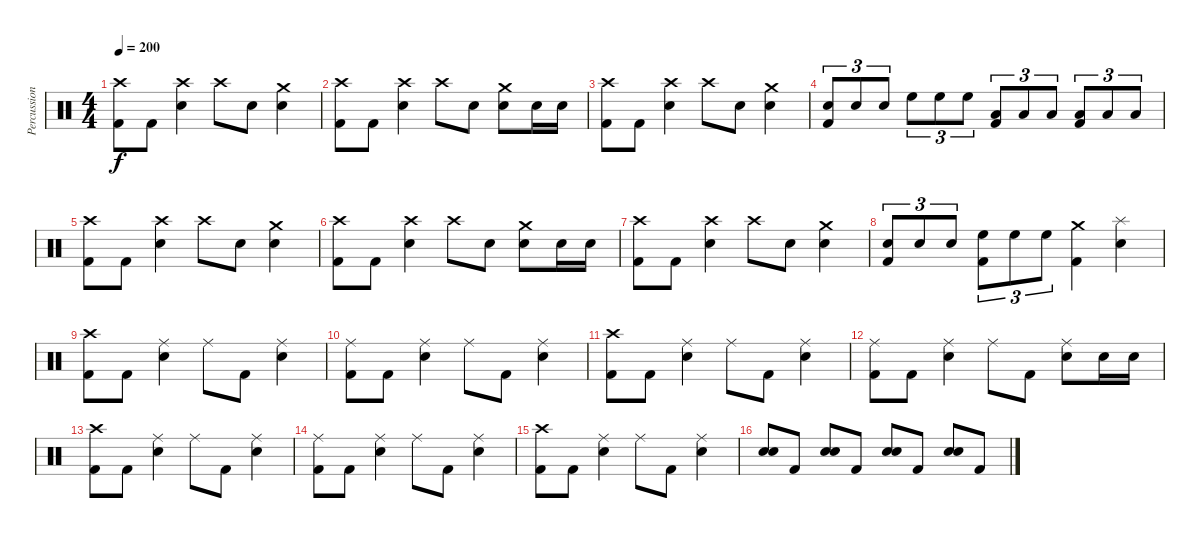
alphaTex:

\track ("Percussion" "Percussion") {instrument percussion}
\staff {score}
\articulation defaults
\ts (4 4)
\tempo 200
\clef neutral
\ks c
("Crash high (hit)" "Kick (hit) 2").8{dy f} "Kick (hit) 2".8 ("Crash high (hit)" "Snare (hit) 2").4 "Crash high (hit)".8 "Snare (hit) 2".8 ("Crash medium (hit)" "Snare (hit) 2").4 |
("Crash high (hit)" "Kick (hit) 2").8 "Kick (hit) 2".8 ("Crash high (hit)" "Snare (hit) 2").4 "Crash high (hit)".8 "Snare (hit) 2".8 ("Crash medium (hit)" "Snare (hit) 2").8 "Snare (hit) 2".16 "Snare (hit) 2".16 |
("Crash high (hit)" "Kick (hit) 2").8 "Kick (hit) 2".8 ("Crash high (hit)" "Snare (hit) 2").4 "Crash high (hit)".8 "Snare (hit) 2".8 ("Crash medium (hit)" "Snare (hit) 2").4 |
("Snare (hit) 2" "Kick (hit) 2").8{tu (3 2)} "Snare (hit) 2".8{tu (3 2)} "Snare (hit) 2".8{tu (3 2)} "High Floor Tom (hit)".8{tu (3 2)} "High Floor Tom (hit)".8{tu (3 2)} "High Floor Tom (hit)".8{tu (3 2)} ("Low Tom (hit)" "Kick (hit) 2").8{tu (3 2)} "Low Tom (hit)".8{tu (3 2)} "Low Tom (hit)".8{tu (3 2)} ("Low Floor Tom (hit)" "Kick (hit) 2").8{tu (3 2)} "Low Floor Tom (hit)".8{tu (3 2)} "Low Floor Tom (hit)".8{tu (3 2)} |
("Crash high (hit)" "Kick (hit) 2").8 "Kick (hit) 2".8 ("Crash high (hit)" "Snare (hit) 2").4 "Crash high (hit)".8 "Snare (hit) 2".8 ("Crash medium (hit)" "Snare (hit) 2").4 |
("Crash high (hit)" "Kick (hit) 2").8 "Kick (hit) 2".8 ("Crash high (hit)" "Snare (hit) 2").4 "Crash high (hit)".8 "Snare (hit) 2".8 ("Crash medium (hit)" "Snare (hit) 2").8 "Snare (hit) 2".16 "Snare (hit) 2".16 |
("Crash high (hit)" "Kick (hit) 2").8 "Kick (hit) 2".8 ("Crash high (hit)" "Snare (hit) 2").4 "Crash high (hit)".8 "Snare (hit) 2".8 ("Crash medium (hit)" "Snare (hit) 2").4 |
("Snare (hit) 2" "Kick (hit) 2").8{tu (3 2)} "Snare (hit) 2".8{tu (3 2)} "Snare (hit) 2".8{tu (3 2)} ("High Floor Tom (hit)" "Kick (hit) 2").8{tu (3 2)} "High Floor Tom (hit)".8{tu (3 2)} "High Floor Tom (hit)".8{tu (3 2)} ("Crash medium (hit)" "Kick (hit) 2").4 ("Splash (hit)" "Snare (hit) 2").4 |
("Crash high (hit)" "Kick (hit) 2").8 "Kick (hit) 2".8 ("Ride (middle)" "Snare (hit) 2").4 "Ride (middle)".8 "Kick (hit) 2".8 ("Ride (middle)" "Snare (hit) 2").4 |
("Ride (middle)" "Kick (hit) 2").8 "Kick (hit) 2".8 ("Ride (middle)" "Snare (hit) 2").4 "Ride (middle)".8 "Kick (hit) 2".8 ("Ride (middle)" "Snare (hit) 2").4 |
("Crash high (hit)" "Kick (hit) 2").8 "Kick (hit) 2".8 ("Ride (middle)" "Snare (hit) 2").4 "Ride (middle)".8 "Kick (hit) 2".8 ("Ride (middle)" "Snare (hit) 2").4 |
("Ride (middle)" "Kick (hit) 2").8 "Kick (hit) 2".8 ("Ride (middle)" "Snare (hit) 2").4 "Ride (middle)".8 "Kick (hit) 2".8 ("Ride (middle)" "Snare (hit) 2").8 "Snare (hit) 2".16 "Snare (hit) 2".16 |
("Crash high (hit)" "Kick (hit) 2").8 "Kick (hit) 2".8 ("Ride (middle)" "Snare (hit) 2").4 "Ride (middle)".8 "Kick (hit) 2".8 ("Ride (middle)" "Snare (hit) 2").4 |
("Ride (middle)" "Kick (hit) 2").8 "Kick (hit) 2".8 ("Ride (middle)" "Snare (hit) 2").4 "Ride (middle)".8 "Kick (hit) 2".8 ("Ride (middle)" "Snare (hit) 2").4 |
("Crash high (hit)" "Kick (hit) 2").8 "Kick (hit) 2".8 ("Ride (middle)" "Snare (hit) 2").4 "Ride (middle)".8 "Kick (hit) 2".8 ("Ride (middle)" "Snare (hit) 2").4 |
("Snare (hit) 2" "Snare (hit) 2").8 "Kick (hit) 2".8 ("Snare (hit) 2" "Snare (hit) 2").8 "Kick (hit) 2".8 ("Snare (hit) 2" "Snare (hit) 2").8 "Kick (hit) 2".8 ("Snare (hit) 2" "Snare (hit) 2").8 "Kick (hit) 2".8
